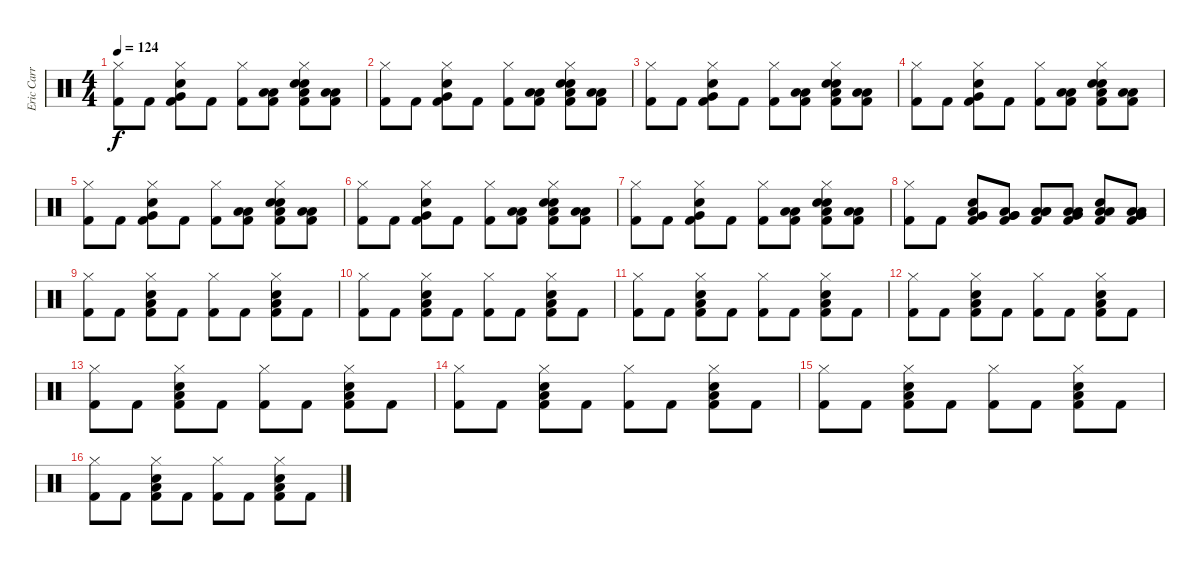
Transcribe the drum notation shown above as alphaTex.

\track ("Eric Carr" "Eric Carr") {instrument percussion}
\staff {score}
\articulation defaults
\ts (4 4)
\tempo 124
\clef neutral
\ks c
("Hi-Hat (closed)" "Kick (hit) 2").8{dy f} "Kick (hit) 2".8 ("Hi-Hat (closed)" "Very Low Tom (hit)" "Snare (hit) 2" "Kick (hit) 2").8 "Kick (hit) 2".8 ("Hi-Hat (closed)" "Kick (hit) 2").8 ("Low Tom (hit)" "Low Tom (hit)" "Kick (hit) 2").8 ("Hi-Hat (closed)" "Snare (hit) 2" "Low Floor Tom (hit)" "Snare (hit) 2" "Kick (hit) 2").8 ("Low Tom (hit)" "Low Tom (hit)" "Kick (hit) 2").8 |
("Hi-Hat (closed)" "Kick (hit) 2").8 "Kick (hit) 2".8 ("Hi-Hat (closed)" "Very Low Tom (hit)" "Snare (hit) 2" "Kick (hit) 2").8 "Kick (hit) 2".8 ("Hi-Hat (closed)" "Kick (hit) 2").8 ("Low Tom (hit)" "Low Tom (hit)" "Kick (hit) 2").8 ("Hi-Hat (closed)" "Snare (hit) 2" "Low Floor Tom (hit)" "Snare (hit) 2" "Kick (hit) 2").8 ("Low Tom (hit)" "Low Tom (hit)" "Kick (hit) 2").8 |
("Hi-Hat (closed)" "Kick (hit) 2").8 "Kick (hit) 2".8 ("Hi-Hat (closed)" "Very Low Tom (hit)" "Snare (hit) 2" "Kick (hit) 2").8 "Kick (hit) 2".8 ("Hi-Hat (closed)" "Kick (hit) 2").8 ("Low Tom (hit)" "Low Tom (hit)" "Kick (hit) 2").8 ("Hi-Hat (closed)" "Snare (hit) 2" "Low Floor Tom (hit)" "Snare (hit) 2" "Kick (hit) 2").8 ("Low Tom (hit)" "Low Tom (hit)" "Kick (hit) 2").8 |
("Hi-Hat (closed)" "Kick (hit) 2").8 "Kick (hit) 2".8 ("Hi-Hat (closed)" "Very Low Tom (hit)" "Snare (hit) 2" "Kick (hit) 2").8 "Kick (hit) 2".8 ("Hi-Hat (closed)" "Kick (hit) 2").8 ("Low Tom (hit)" "Low Tom (hit)" "Kick (hit) 2").8 ("Hi-Hat (closed)" "Snare (hit) 2" "Low Floor Tom (hit)" "Snare (hit) 2" "Kick (hit) 2").8 ("Low Tom (hit)" "Low Tom (hit)" "Kick (hit) 2").8 |
("Hi-Hat (closed)" "Kick (hit) 2").8 "Kick (hit) 2".8 ("Hi-Hat (closed)" "Very Low Tom (hit)" "Snare (hit) 2" "Kick (hit) 2").8 "Kick (hit) 2".8 ("Hi-Hat (closed)" "Kick (hit) 2").8 ("Low Tom (hit)" "Low Tom (hit)" "Kick (hit) 2").8 ("Hi-Hat (closed)" "Snare (hit) 2" "Low Floor Tom (hit)" "Snare (hit) 2" "Kick (hit) 2").8 ("Low Tom (hit)" "Low Tom (hit)" "Kick (hit) 2").8 |
("Hi-Hat (closed)" "Kick (hit) 2").8 "Kick (hit) 2".8 ("Hi-Hat (closed)" "Very Low Tom (hit)" "Snare (hit) 2" "Kick (hit) 2").8 "Kick (hit) 2".8 ("Hi-Hat (closed)" "Kick (hit) 2").8 ("Low Tom (hit)" "Low Tom (hit)" "Kick (hit) 2").8 ("Hi-Hat (closed)" "Snare (hit) 2" "Low Floor Tom (hit)" "Snare (hit) 2" "Kick (hit) 2").8 ("Low Tom (hit)" "Low Tom (hit)" "Kick (hit) 2").8 |
("Hi-Hat (closed)" "Kick (hit) 2").8 "Kick (hit) 2".8 ("Hi-Hat (closed)" "Very Low Tom (hit)" "Snare (hit) 2" "Kick (hit) 2").8 "Kick (hit) 2".8 ("Hi-Hat (closed)" "Kick (hit) 2").8 ("Low Tom (hit)" "Low Tom (hit)" "Kick (hit) 2").8 ("Hi-Hat (closed)" "Snare (hit) 2" "Low Floor Tom (hit)" "Snare (hit) 2" "Kick (hit) 2").8 ("Low Tom (hit)" "Low Tom (hit)" "Kick (hit) 2").8 |
("Hi-Hat (closed)" "Kick (hit) 2").8 "Kick (hit) 2".8 ("Low Floor Tom (hit)" "Very Low Tom (hit)" "Snare (hit) 2" "Kick (hit) 2").8 ("Very Low Tom (hit)" "Very Low Tom (hit)" "Low Floor Tom (hit)" "Kick (hit) 2").8 ("Low Tom (hit)" "Low Tom (hit)" "Low Floor Tom (hit)" "Kick (hit) 2").8 ("Very Low Tom (hit)" "Low Tom (hit)" "Low Tom (hit)" "Kick (hit) 2").8 ("Low Floor Tom (hit)" "Low Floor Tom (hit)" "Snare (hit) 2" "Kick (hit) 2").8 ("Very Low Tom (hit)" "Low Tom (hit)" "Low Tom (hit)" "Kick (hit) 2").8 |
("Hi-Hat (closed)" "Kick (hit) 2").8 "Kick (hit) 2".8 ("Hi-Hat (closed)" "Snare (hit) 2" "Low Floor Tom (hit)" "Kick (hit) 2").8 "Kick (hit) 2".8 ("Hi-Hat (closed)" "Kick (hit) 2").8 "Kick (hit) 2".8 ("Hi-Hat (closed)" "Snare (hit) 2" "Low Floor Tom (hit)" "Kick (hit) 2").8 "Kick (hit) 2".8 |
("Hi-Hat (closed)" "Kick (hit) 2").8 "Kick (hit) 2".8 ("Hi-Hat (closed)" "Snare (hit) 2" "Low Floor Tom (hit)" "Kick (hit) 2").8 "Kick (hit) 2".8 ("Hi-Hat (closed)" "Kick (hit) 2").8 "Kick (hit) 2".8 ("Hi-Hat (closed)" "Snare (hit) 2" "Low Floor Tom (hit)" "Kick (hit) 2").8 "Kick (hit) 2".8 |
("Hi-Hat (closed)" "Kick (hit) 2").8 "Kick (hit) 2".8 ("Hi-Hat (closed)" "Snare (hit) 2" "Low Floor Tom (hit)" "Kick (hit) 2").8 "Kick (hit) 2".8 ("Hi-Hat (closed)" "Kick (hit) 2").8 "Kick (hit) 2".8 ("Hi-Hat (closed)" "Snare (hit) 2" "Low Floor Tom (hit)" "Kick (hit) 2").8 "Kick (hit) 2".8 |
("Hi-Hat (closed)" "Kick (hit) 2").8 "Kick (hit) 2".8 ("Hi-Hat (closed)" "Snare (hit) 2" "Low Floor Tom (hit)" "Kick (hit) 2").8 "Kick (hit) 2".8 ("Hi-Hat (closed)" "Kick (hit) 2").8 "Kick (hit) 2".8 ("Hi-Hat (closed)" "Snare (hit) 2" "Low Floor Tom (hit)" "Kick (hit) 2").8 "Kick (hit) 2".8 |
("Hi-Hat (closed)" "Kick (hit) 2").8 "Kick (hit) 2".8 ("Hi-Hat (closed)" "Snare (hit) 2" "Low Floor Tom (hit)" "Kick (hit) 2").8 "Kick (hit) 2".8 ("Hi-Hat (closed)" "Kick (hit) 2").8 "Kick (hit) 2".8 ("Hi-Hat (closed)" "Snare (hit) 2" "Low Floor Tom (hit)" "Kick (hit) 2").8 "Kick (hit) 2".8 |
("Hi-Hat (closed)" "Kick (hit) 2").8 "Kick (hit) 2".8 ("Hi-Hat (closed)" "Snare (hit) 2" "Low Floor Tom (hit)" "Kick (hit) 2").8 "Kick (hit) 2".8 ("Hi-Hat (closed)" "Kick (hit) 2").8 "Kick (hit) 2".8 ("Hi-Hat (closed)" "Snare (hit) 2" "Low Floor Tom (hit)" "Kick (hit) 2").8 "Kick (hit) 2".8 |
("Hi-Hat (closed)" "Kick (hit) 2").8 "Kick (hit) 2".8 ("Hi-Hat (closed)" "Snare (hit) 2" "Low Floor Tom (hit)" "Kick (hit) 2").8 "Kick (hit) 2".8 ("Hi-Hat (closed)" "Kick (hit) 2").8 "Kick (hit) 2".8 ("Hi-Hat (closed)" "Snare (hit) 2" "Low Floor Tom (hit)" "Kick (hit) 2").8 "Kick (hit) 2".8 |
("Hi-Hat (closed)" "Kick (hit) 2").8 "Kick (hit) 2".8 ("Hi-Hat (closed)" "Snare (hit) 2" "Low Floor Tom (hit)" "Kick (hit) 2").8 "Kick (hit) 2".8 ("Hi-Hat (closed)" "Kick (hit) 2").8 "Kick (hit) 2".8 ("Hi-Hat (closed)" "Snare (hit) 2" "Low Floor Tom (hit)" "Kick (hit) 2").8 "Kick (hit) 2".8
